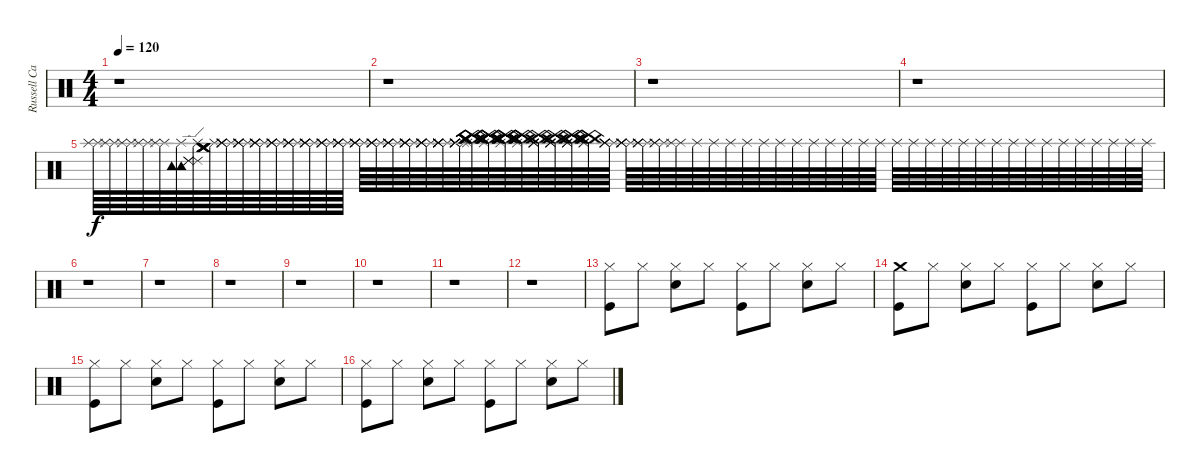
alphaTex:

\track ("Russell Cannon" "Russell Ca") {instrument percussion}
\staff {score}
\articulation defaults
\ts (4 4)
\tempo 120
\clef neutral
\ks c
r.1{dy f} |
r.1 |
r.1 |
r.1 |
("Splash (hit)" "Splash (hit)").64 ("Splash (hit)" "Splash (hit)").64 ("Splash (hit)" "Splash (hit)").64 ("Splash (hit)" "Splash (hit)").64 ("Splash (hit)" "Splash (hit)").64 ("Splash (hit)" "Tambourine (hit)" "Tambourine (hit)").64 ("Splash (hit)" "Ride (edge) 2" "Ride (edge) 2" "Ride (edge) 2").64 ("Splash (hit)" "Crash medium (hit)" "Crash medium (hit)" "Crash medium (hit)" "Crash medium (hit)").64 ("Splash (hit)" "Splash (hit)" "Splash (hit)" "Splash (hit)" "Splash (hit)").64 ("Splash (hit)" "Splash (hit)" "Splash (hit)" "Splash (hit)" "Splash (hit)").64 ("Splash (hit)" "Splash (hit)" "Splash (hit)" "Splash (hit)" "Splash (hit)").64 ("Splash (hit)" "Splash (hit)" "Splash (hit)" "Splash (hit)" "Splash (hit)").64 ("Splash (hit)" "Splash (hit)" "Splash (hit)" "Splash (hit)" "Splash (hit)").64 ("Splash (hit)" "Splash (hit)" "Splash (hit)" "Splash (hit)" "Splash (hit)").64 ("Splash (hit)" "Splash (hit)" "Splash (hit)" "Splash (hit)" "Splash (hit)").64 ("Splash (hit)" "Splash (hit)" "Splash (hit)" "Splash (hit)" "Splash (hit)").64 ("Splash (hit)" "Splash (hit)" "Splash (hit)" "Splash (hit)" "Splash (hit)").64 ("Splash (hit)" "Splash (hit)" "Splash (hit)" "Splash (hit)" "Splash (hit)").64 ("Splash (hit)" "Splash (hit)" "Splash (hit)" "Splash (hit)" "Splash (hit)").64 ("Splash (hit)" "Splash (hit)" "Splash (hit)" "Splash (hit)" "Splash (hit)" "Splash (hit)").64 ("Splash (hit)" "Splash (hit)" "Splash (hit)" "Splash (hit)" "Splash (hit)" "Splash (hit)").64 ("Splash (hit)" "Splash (hit)" "Splash (hit)" "Splash (hit)" "Splash (hit)" "Splash (hit)").64 ("Splash (hit)" "Splash (hit)" "Splash (hit)" "Splash (hit)" "Splash (hit)" "Splash (hit)").64 ("Splash (hit)" "China (hit)" "China (hit)" "China (hit)" "China (hit)" "China (hit)").64 ("Splash (hit)" "China (hit)" "China (hit)" "China (hit)" "China (hit)" "China (hit)").64 ("Splash (hit)" "China (hit)" "China (hit)" "China (hit)" "China (hit)" "China (hit)").64 ("Splash (hit)" "China (hit)" "China (hit)" "China (hit)" "China (hit)" "China (hit)").64 ("Splash (hit)" "Splash (hit)" "Splash (hit)" "Splash (hit)" "China (hit)" "China (hit)").64 ("Splash (hit)" "Splash (hit)" "Splash (hit)" "Splash (hit)" "China (hit)" "China (hit)").64 ("Splash (hit)" "Splash (hit)" "Splash (hit)" "China (hit)" "China (hit)" "China (hit)").64 ("Splash (hit)" "Splash (hit)" "China (hit)" "China (hit)" "China (hit)" "China (hit)").64 ("Splash (hit)" "Splash (hit)" "Splash (hit)" "Splash (hit)" "Splash (hit)").64 ("Splash (hit)" "Splash (hit)" "Splash (hit)" "Splash (hit)" "Splash (hit)").64 ("Splash (hit)" "Splash (hit)" "Splash (hit)" "Splash (hit)").64 ("Splash (hit)" "Splash (hit)" "Splash (hit)").64 ("Splash (hit)" "Splash (hit)").64 "Splash (hit)".64 "Splash (hit)".64 "Splash (hit)".64 "Splash (hit)".64 "Splash (hit)".64 "Splash (hit)".64 "Splash (hit)".64 "Splash (hit)".64 "Splash (hit)".64 "Splash (hit)".64 "Splash (hit)".64 "Splash (hit)".64 "Splash (hit)".64 "Splash (hit)".64 "Splash (hit)".64 "Splash (hit)".64 "Splash (hit)".64 "Splash (hit)".64 "Splash (hit)".64 "Splash (hit)".64 "Splash (hit)".64 "Splash (hit)".64 "Splash (hit)".64 "Splash (hit)".64 "Splash (hit)".64 "Splash (hit)".64 "Splash (hit)".64 "Splash (hit)".64 |
r.1 |
r.1 |
r.1 |
r.1 |
r.1 |
r.1 |
r.1 |
("Hi-Hat (closed)" "Kick (hit)").8 "Hi-Hat (closed)".8 ("Hi-Hat (closed)" "Electric Snare (hit)").8 "Hi-Hat (closed)".8 ("Hi-Hat (closed)" "Kick (hit)").8 "Hi-Hat (closed)".8 ("Hi-Hat (closed)" "Electric Snare (hit)").8 "Hi-Hat (closed)".8 |
("Crash medium (hit)" "Kick (hit)").8 "Hi-Hat (closed)".8 ("Hi-Hat (closed)" "Electric Snare (hit)").8 "Hi-Hat (closed)".8 ("Hi-Hat (closed)" "Kick (hit)").8 "Hi-Hat (closed)".8 ("Hi-Hat (closed)" "Electric Snare (hit)").8 "Hi-Hat (closed)".8 |
("Hi-Hat (closed)" "Kick (hit)").8 "Hi-Hat (closed)".8 ("Hi-Hat (closed)" "Electric Snare (hit)").8 "Hi-Hat (closed)".8 ("Hi-Hat (closed)" "Kick (hit)").8 "Hi-Hat (closed)".8 ("Hi-Hat (closed)" "Electric Snare (hit)").8 "Hi-Hat (closed)".8 |
("Hi-Hat (closed)" "Kick (hit)").8 "Hi-Hat (closed)".8 ("Hi-Hat (closed)" "Electric Snare (hit)").8 "Hi-Hat (closed)".8 ("Hi-Hat (closed)" "Kick (hit)").8 "Hi-Hat (closed)".8 ("Hi-Hat (closed)" "Electric Snare (hit)").8 "Hi-Hat (closed)".8
